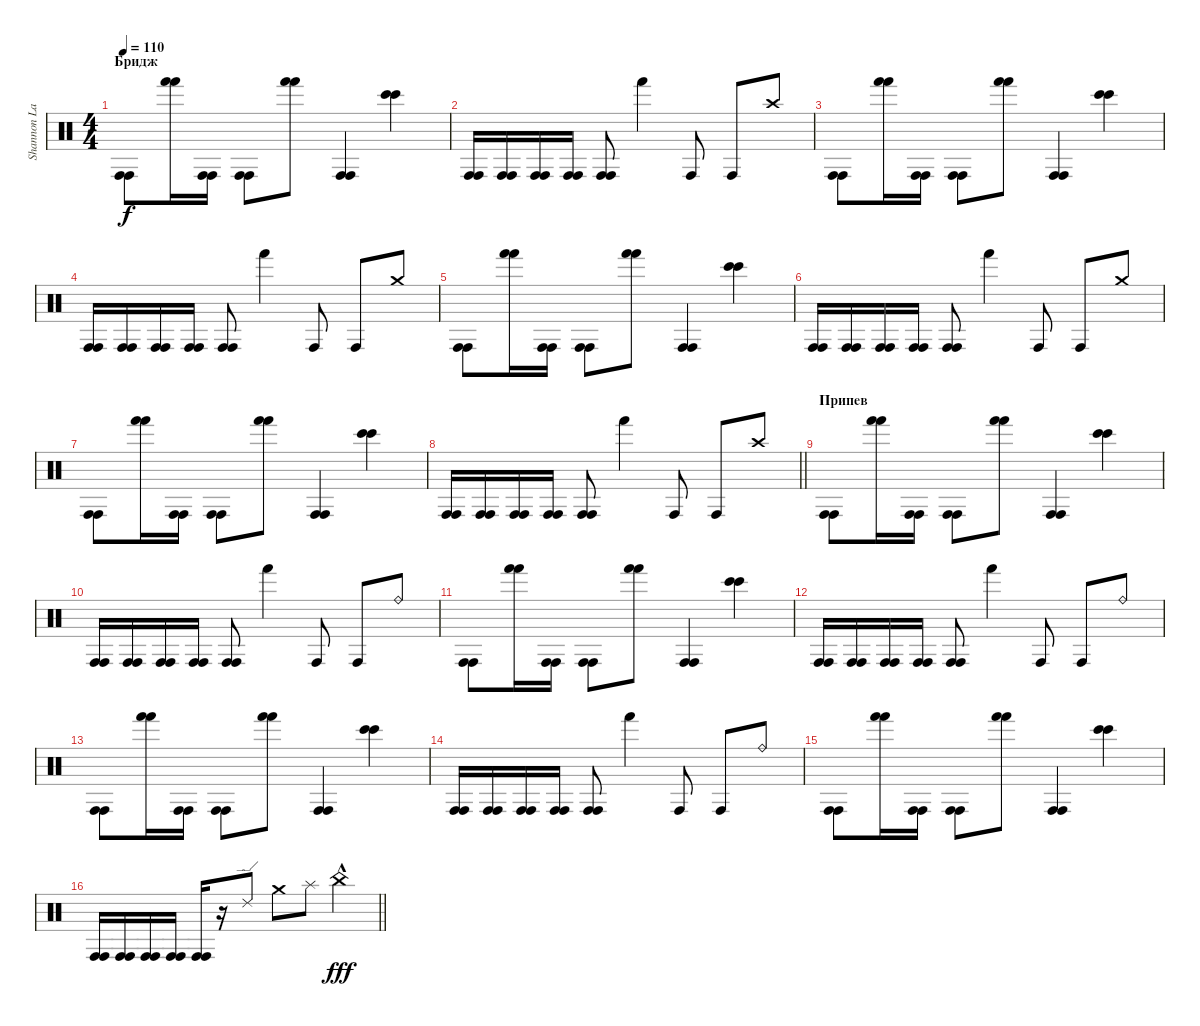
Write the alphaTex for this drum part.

\track ("Shannon Larkin [Percussion 1]" "Shannon La") {instrument percussion}
\staff {score}
\articulation defaults
\ts (4 4)
\section ("" "Бридж")
\tempo 110
\clef neutral
\ks c
("Conga high (hit)" "Conga high (hit)").8{dy f} ("Hand (hit)" "Hand (hit)").16 ("Conga high (hit)" "Conga high (hit)").16 ("Conga high (hit)" "Conga high (hit)").8 ("Hand (hit)" "Hand (hit)").8 ("Conga high (hit)" "Conga high (hit)").4 ("Bongo High (hit)" "Bongo High (hit)").4 |
("Conga high (hit)" "Conga high (hit)").16 ("Conga high (hit)" "Conga high (hit)").16 ("Conga high (hit)" "Conga high (hit)").16 ("Conga high (hit)" "Conga high (hit)").16 ("Conga high (hit)" "Conga high (hit)").8 "Hand (hit)".4 "Conga high (hit)".8 "Conga high (hit)".8 "Crash high (hit)".8 |
("Conga high (hit)" "Conga high (hit)").8 ("Hand (hit)" "Hand (hit)").16 ("Conga high (hit)" "Conga high (hit)").16 ("Conga high (hit)" "Conga high (hit)").8 ("Hand (hit)" "Hand (hit)").8 ("Conga high (hit)" "Conga high (hit)").4 ("Bongo High (hit)" "Bongo High (hit)").4 |
("Conga high (hit)" "Conga high (hit)").16 ("Conga high (hit)" "Conga high (hit)").16 ("Conga high (hit)" "Conga high (hit)").16 ("Conga high (hit)" "Conga high (hit)").16 ("Conga high (hit)" "Conga high (hit)").8 "Hand (hit)".4 "Conga high (hit)".8 "Conga high (hit)".8 "Crash medium (hit)".8 |
("Conga high (hit)" "Conga high (hit)").8 ("Hand (hit)" "Hand (hit)").16 ("Conga high (hit)" "Conga high (hit)").16 ("Conga high (hit)" "Conga high (hit)").8 ("Hand (hit)" "Hand (hit)").8 ("Conga high (hit)" "Conga high (hit)").4 ("Bongo High (hit)" "Bongo High (hit)").4 |
("Conga high (hit)" "Conga high (hit)").16 ("Conga high (hit)" "Conga high (hit)").16 ("Conga high (hit)" "Conga high (hit)").16 ("Conga high (hit)" "Conga high (hit)").16 ("Conga high (hit)" "Conga high (hit)").8 "Hand (hit)".4 "Conga high (hit)".8 "Conga high (hit)".8 "Crash medium (hit)".8 |
("Conga high (hit)" "Conga high (hit)").8 ("Hand (hit)" "Hand (hit)").16 ("Conga high (hit)" "Conga high (hit)").16 ("Conga high (hit)" "Conga high (hit)").8 ("Hand (hit)" "Hand (hit)").8 ("Conga high (hit)" "Conga high (hit)").4 ("Bongo High (hit)" "Bongo High (hit)").4 |
\barLineRight lightlight
("Conga high (hit)" "Conga high (hit)").16 ("Conga high (hit)" "Conga high (hit)").16 ("Conga high (hit)" "Conga high (hit)").16 ("Conga high (hit)" "Conga high (hit)").16 ("Conga high (hit)" "Conga high (hit)").8 "Hand (hit)".4 "Conga high (hit)".8 "Conga high (hit)".8 "Crash high (hit)".8 |
\section ("" "Припев")
("Conga high (hit)" "Conga high (hit)").8 ("Hand (hit)" "Hand (hit)").16 ("Conga high (hit)" "Conga high (hit)").16 ("Conga high (hit)" "Conga high (hit)").8 ("Hand (hit)" "Hand (hit)").8 ("Conga high (hit)" "Conga high (hit)").4 ("Bongo High (hit)" "Bongo High (hit)").4 |
("Conga high (hit)" "Conga high (hit)").16 ("Conga high (hit)" "Conga high (hit)").16 ("Conga high (hit)" "Conga high (hit)").16 ("Conga high (hit)" "Conga high (hit)").16 ("Conga high (hit)" "Conga high (hit)").8 "Hand (hit)".4 "Conga high (hit)".8 "Conga high (hit)".8 "Ride (bell)".8 |
("Conga high (hit)" "Conga high (hit)").8 ("Hand (hit)" "Hand (hit)").16 ("Conga high (hit)" "Conga high (hit)").16 ("Conga high (hit)" "Conga high (hit)").8 ("Hand (hit)" "Hand (hit)").8 ("Conga high (hit)" "Conga high (hit)").4 ("Bongo High (hit)" "Bongo High (hit)").4 |
("Conga high (hit)" "Conga high (hit)").16 ("Conga high (hit)" "Conga high (hit)").16 ("Conga high (hit)" "Conga high (hit)").16 ("Conga high (hit)" "Conga high (hit)").16 ("Conga high (hit)" "Conga high (hit)").8 "Hand (hit)".4 "Conga high (hit)".8 "Conga high (hit)".8 "Ride (bell)".8 |
("Conga high (hit)" "Conga high (hit)").8 ("Hand (hit)" "Hand (hit)").16 ("Conga high (hit)" "Conga high (hit)").16 ("Conga high (hit)" "Conga high (hit)").8 ("Hand (hit)" "Hand (hit)").8 ("Conga high (hit)" "Conga high (hit)").4 ("Bongo High (hit)" "Bongo High (hit)").4 |
("Conga high (hit)" "Conga high (hit)").16 ("Conga high (hit)" "Conga high (hit)").16 ("Conga high (hit)" "Conga high (hit)").16 ("Conga high (hit)" "Conga high (hit)").16 ("Conga high (hit)" "Conga high (hit)").8 "Hand (hit)".4 "Conga high (hit)".8 "Conga high (hit)".8 "Ride (bell)".8 |
("Conga high (hit)" "Conga high (hit)").8 ("Hand (hit)" "Hand (hit)").16 ("Conga high (hit)" "Conga high (hit)").16 ("Conga high (hit)" "Conga high (hit)").8 ("Hand (hit)" "Hand (hit)").8 ("Conga high (hit)" "Conga high (hit)").4 ("Bongo High (hit)" "Bongo High (hit)").4 |
\barLineRight lightlight
("Conga high (hit)" "Conga high (hit)").16 ("Conga high (hit)" "Conga high (hit)").16 ("Conga high (hit)" "Conga high (hit)").16 ("Conga high (hit)" "Conga high (hit)").16 ("Conga high (hit)" "Conga high (hit)").16 r.16 "Ride (edge) 2".8 "Crash medium (hit)".8 "Splash (hit)".8 "China (hit)"{hac}.4{dy fff}
